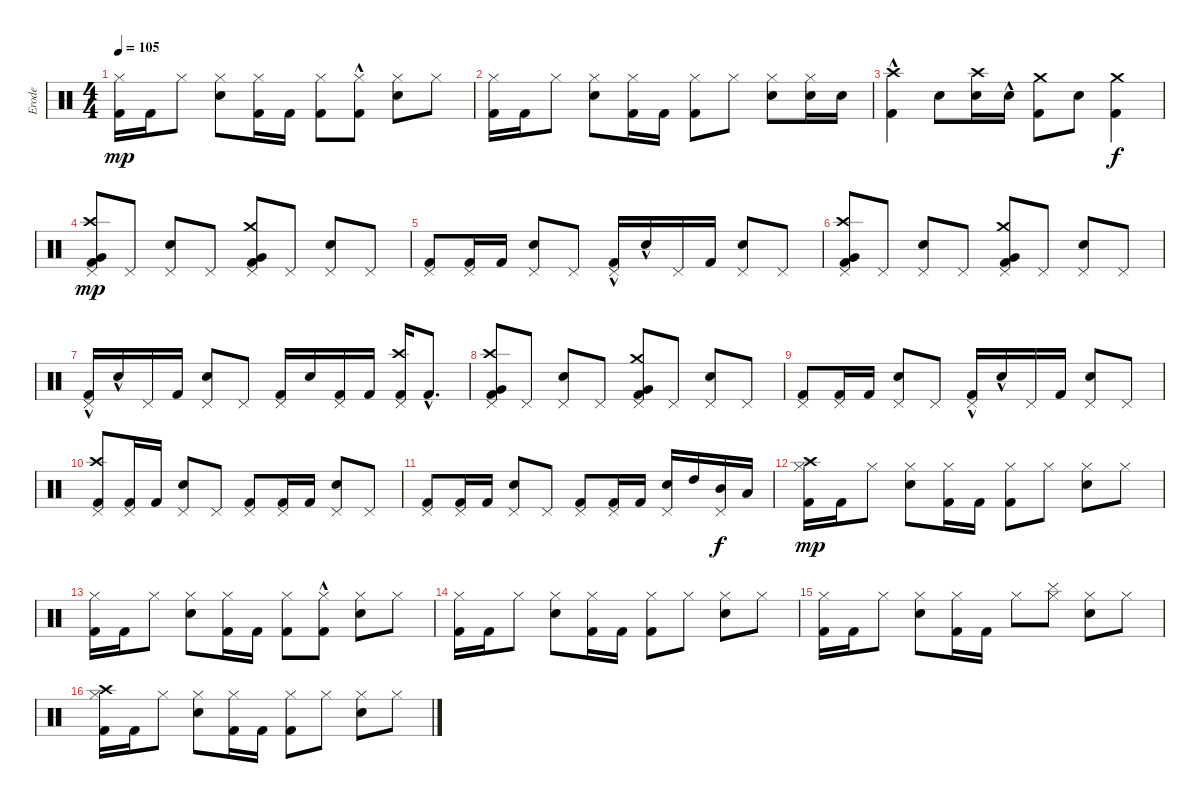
\track ("Erode" "Erode") {instrument percussion}
\staff {score}
\articulation defaults
\ts (4 4)
\tempo 105
\clef neutral
\ks c
("Kick (hit) 2" "Hi-Hat (closed)").16{dy mp} "Kick (hit) 2".16 "Hi-Hat (closed)".8 ("Electric Snare (hit)" "Hi-Hat (closed)").8 ("Kick (hit) 2" "Hi-Hat (closed)").16 "Kick (hit) 2".16 ("Kick (hit) 2" "Hi-Hat (closed)").8 ("Kick (hit) 2"{hac} "Hi-Hat (closed)").8 ("Electric Snare (hit)" "Hi-Hat (closed)").8 "Hi-Hat (closed)".8 |
("Kick (hit) 2" "Hi-Hat (closed)").16 "Kick (hit) 2".16 "Hi-Hat (closed)".8 ("Electric Snare (hit)" "Hi-Hat (closed)").8 ("Kick (hit) 2" "Hi-Hat (closed)").16 "Kick (hit) 2".16 ("Kick (hit) 2" "Hi-Hat (closed)").8 "Hi-Hat (closed)".8 ("Electric Snare (hit)" "Hi-Hat (closed)").8 ("Electric Snare (hit)" "Hi-Hat (closed)").16 "Electric Snare (hit)".16 |
("Kick (hit) 2" "Crash high (hit)"{hac}).4 "Electric Snare (hit)".8 ("Electric Snare (hit)" "Crash high (hit)").16 "Electric Snare (hit)"{hac}.16 ("Kick (hit) 2" "Crash medium (hit)").8 "Electric Snare (hit)".8 ("Kick (hit) 2" "Crash medium (hit)").4{dy f} |
("Kick (hit) 2" "Very Low Tom (hit)" "Pedal Hi-Hat (hit)" "Crash high (hit)").8{dy mp} "Pedal Hi-Hat (hit)".8 ("Snare (hit) 2" "Pedal Hi-Hat (hit)").8 "Pedal Hi-Hat (hit)".8 ("Kick (hit) 2" "Very Low Tom (hit)" "Pedal Hi-Hat (hit)" "Crash medium (hit)").8 "Pedal Hi-Hat (hit)".8 ("Snare (hit) 2" "Pedal Hi-Hat (hit)").8 "Pedal Hi-Hat (hit)".8 |
("Kick (hit) 2" "Pedal Hi-Hat (hit)").8 ("Kick (hit) 2" "Pedal Hi-Hat (hit)").16 "Kick (hit) 2".16 ("Snare (hit) 2" "Pedal Hi-Hat (hit)").8 "Pedal Hi-Hat (hit)".8 ("Kick (hit) 2"{hac} "Pedal Hi-Hat (hit)").16 "Snare (hit) 2"{hac}.16 "Pedal Hi-Hat (hit)".16 "Kick (hit) 2".16 ("Snare (hit) 2" "Pedal Hi-Hat (hit)").8 "Pedal Hi-Hat (hit)".8 |
("Kick (hit) 2" "Very Low Tom (hit)" "Pedal Hi-Hat (hit)" "Crash high (hit)").8 "Pedal Hi-Hat (hit)".8 ("Snare (hit) 2" "Pedal Hi-Hat (hit)").8 "Pedal Hi-Hat (hit)".8 ("Kick (hit) 2" "Very Low Tom (hit)" "Pedal Hi-Hat (hit)" "Crash medium (hit)").8 "Pedal Hi-Hat (hit)".8 ("Snare (hit) 2" "Pedal Hi-Hat (hit)").8 "Pedal Hi-Hat (hit)".8 |
("Kick (hit) 2"{hac} "Pedal Hi-Hat (hit)").16 "Snare (hit) 2"{hac}.16 "Pedal Hi-Hat (hit)".16 "Kick (hit) 2".16 ("Snare (hit) 2" "Pedal Hi-Hat (hit)").8 "Pedal Hi-Hat (hit)".8 ("Kick (hit) 2" "Pedal Hi-Hat (hit)").16 "Snare (hit) 2".16 ("Kick (hit) 2" "Pedal Hi-Hat (hit)").16 "Kick (hit) 2".16 ("Kick (hit) 2" "Pedal Hi-Hat (hit)" "Crash high (hit)").16 "Kick (hit) 2"{hac}.8{d} |
("Kick (hit) 2" "Very Low Tom (hit)" "Pedal Hi-Hat (hit)" "Crash high (hit)").8 "Pedal Hi-Hat (hit)".8 ("Snare (hit) 2" "Pedal Hi-Hat (hit)").8 "Pedal Hi-Hat (hit)".8 ("Kick (hit) 2" "Very Low Tom (hit)" "Pedal Hi-Hat (hit)" "Crash medium (hit)").8 "Pedal Hi-Hat (hit)".8 ("Snare (hit) 2" "Pedal Hi-Hat (hit)").8 "Pedal Hi-Hat (hit)".8 |
("Kick (hit) 2" "Pedal Hi-Hat (hit)").8 ("Kick (hit) 2" "Pedal Hi-Hat (hit)").16 "Kick (hit) 2".16 ("Snare (hit) 2" "Pedal Hi-Hat (hit)").8 "Pedal Hi-Hat (hit)".8 ("Kick (hit) 2"{hac} "Pedal Hi-Hat (hit)").16 "Snare (hit) 2"{hac}.16 "Pedal Hi-Hat (hit)".16 "Kick (hit) 2".16 ("Snare (hit) 2" "Pedal Hi-Hat (hit)").8 "Pedal Hi-Hat (hit)".8 |
("Kick (hit) 2" "Pedal Hi-Hat (hit)" "Crash high (hit)").8 ("Kick (hit) 2" "Pedal Hi-Hat (hit)").16 "Kick (hit) 2".16 ("Snare (hit) 2" "Pedal Hi-Hat (hit)").8 "Pedal Hi-Hat (hit)".8 ("Kick (hit) 2" "Pedal Hi-Hat (hit)").8 ("Kick (hit) 2" "Pedal Hi-Hat (hit)").16 "Kick (hit) 2".16 ("Snare (hit) 2" "Pedal Hi-Hat (hit)").8 "Pedal Hi-Hat (hit)".8 |
("Kick (hit) 2" "Pedal Hi-Hat (hit)").8 ("Kick (hit) 2" "Pedal Hi-Hat (hit)").16 "Kick (hit) 2".16 ("Snare (hit) 2" "Pedal Hi-Hat (hit)").8 "Pedal Hi-Hat (hit)".8 ("Kick (hit) 2" "Pedal Hi-Hat (hit)").8 ("Kick (hit) 2" "Pedal Hi-Hat (hit)").16 "Kick (hit) 2".16 ("Snare (hit) 2" "Pedal Hi-Hat (hit)").16 "High Tom (hit)".16 ("Mid Tom (hit)" "Pedal Hi-Hat (hit)").16{dy f} "Low Tom (hit)".16 |
("Kick (hit) 2" "Hi-Hat (closed)" "Crash high (hit)").16{dy mp} "Kick (hit) 2".16 "Hi-Hat (closed)".8 ("Electric Snare (hit)" "Hi-Hat (closed)").8 ("Kick (hit) 2" "Hi-Hat (closed)").16 "Kick (hit) 2".16 ("Kick (hit) 2" "Hi-Hat (closed)").8 "Hi-Hat (closed)".8 ("Electric Snare (hit)" "Hi-Hat (closed)").8 "Hi-Hat (closed)".8 |
("Kick (hit) 2" "Hi-Hat (closed)").16 "Kick (hit) 2".16 "Hi-Hat (closed)".8 ("Electric Snare (hit)" "Hi-Hat (closed)").8 ("Kick (hit) 2" "Hi-Hat (closed)").16 "Kick (hit) 2".16 ("Kick (hit) 2" "Hi-Hat (closed)").8 ("Kick (hit) 2"{hac} "Hi-Hat (closed)").8 ("Electric Snare (hit)" "Hi-Hat (closed)").8 "Hi-Hat (closed)".8 |
("Kick (hit) 2" "Hi-Hat (closed)").16 "Kick (hit) 2".16 "Hi-Hat (closed)".8 ("Electric Snare (hit)" "Hi-Hat (closed)").8 ("Kick (hit) 2" "Hi-Hat (closed)").16 "Kick (hit) 2".16 ("Kick (hit) 2" "Hi-Hat (closed)").8 "Hi-Hat (closed)".8 ("Electric Snare (hit)" "Hi-Hat (closed)").8 "Hi-Hat (closed)".8 |
("Kick (hit) 2" "Hi-Hat (closed)").16 "Kick (hit) 2".16 "Hi-Hat (closed)".8 ("Electric Snare (hit)" "Hi-Hat (closed)").8 ("Kick (hit) 2" "Hi-Hat (closed)").16 "Kick (hit) 2".16 "Hi-Hat (closed)".8 ("Cymbal (hit)" "Hi-Hat (closed)").8 ("Electric Snare (hit)" "Hi-Hat (closed)").8 "Hi-Hat (closed)".8 |
("Kick (hit) 2" "Hi-Hat (closed)" "Crash high (hit)").16 "Kick (hit) 2".16 "Hi-Hat (closed)".8 ("Electric Snare (hit)" "Hi-Hat (closed)").8 ("Kick (hit) 2" "Hi-Hat (closed)").16 "Kick (hit) 2".16 ("Kick (hit) 2" "Hi-Hat (closed)").8 "Hi-Hat (closed)".8 ("Electric Snare (hit)" "Hi-Hat (closed)").8 "Hi-Hat (closed)".8
